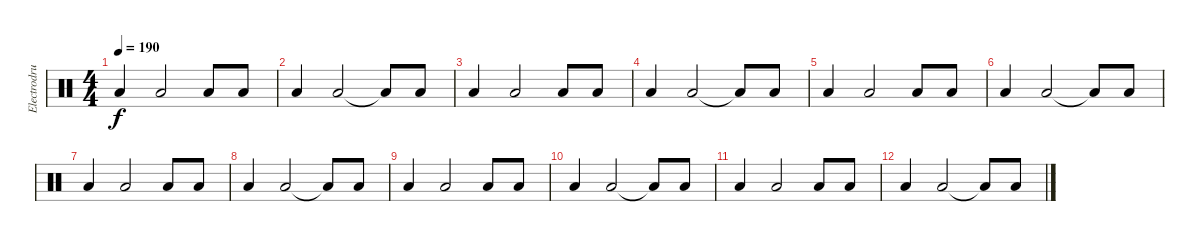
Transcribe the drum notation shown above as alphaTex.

\track ("Electrodrums3" "Electrodru") {instrument percussion}
\staff {score}
\articulation defaults
\ts (4 4)
\tempo 190
\clef neutral
\ks c "Low Floor Tom (hit)".4{dy f} "Low Floor Tom (hit)".2 "Low Floor Tom (hit)".8 "Low Floor Tom (hit)".8
|
"Low Floor Tom (hit)".4 "Low Floor Tom (hit)".2 "Low Floor Tom (hit)"{t}.8 "Low Floor Tom (hit)".8 |
"Low Floor Tom (hit)".4 "Low Floor Tom (hit)".2 "Low Floor Tom (hit)".8 "Low Floor Tom (hit)".8 |
"Low Floor Tom (hit)".4 "Low Floor Tom (hit)".2 "Low Floor Tom (hit)"{t}.8 "Low Floor Tom (hit)".8 |
"Low Floor Tom (hit)".4 "Low Floor Tom (hit)".2 "Low Floor Tom (hit)".8 "Low Floor Tom (hit)".8 |
"Low Floor Tom (hit)".4 "Low Floor Tom (hit)".2 "Low Floor Tom (hit)"{t}.8 "Low Floor Tom (hit)".8 |
"Low Floor Tom (hit)".4 "Low Floor Tom (hit)".2 "Low Floor Tom (hit)".8 "Low Floor Tom (hit)".8 |
"Low Floor Tom (hit)".4 "Low Floor Tom (hit)".2 "Low Floor Tom (hit)"{t}.8 "Low Floor Tom (hit)".8 |
"Low Floor Tom (hit)".4 "Low Floor Tom (hit)".2 "Low Floor Tom (hit)".8 "Low Floor Tom (hit)".8 |
"Low Floor Tom (hit)".4 "Low Floor Tom (hit)".2 "Low Floor Tom (hit)"{t}.8 "Low Floor Tom (hit)".8 |
"Low Floor Tom (hit)".4 "Low Floor Tom (hit)".2 "Low Floor Tom (hit)".8 "Low Floor Tom (hit)".8 |
"Low Floor Tom (hit)".4 "Low Floor Tom (hit)".2 "Low Floor Tom (hit)"{t}.8 "Low Floor Tom (hit)".8
